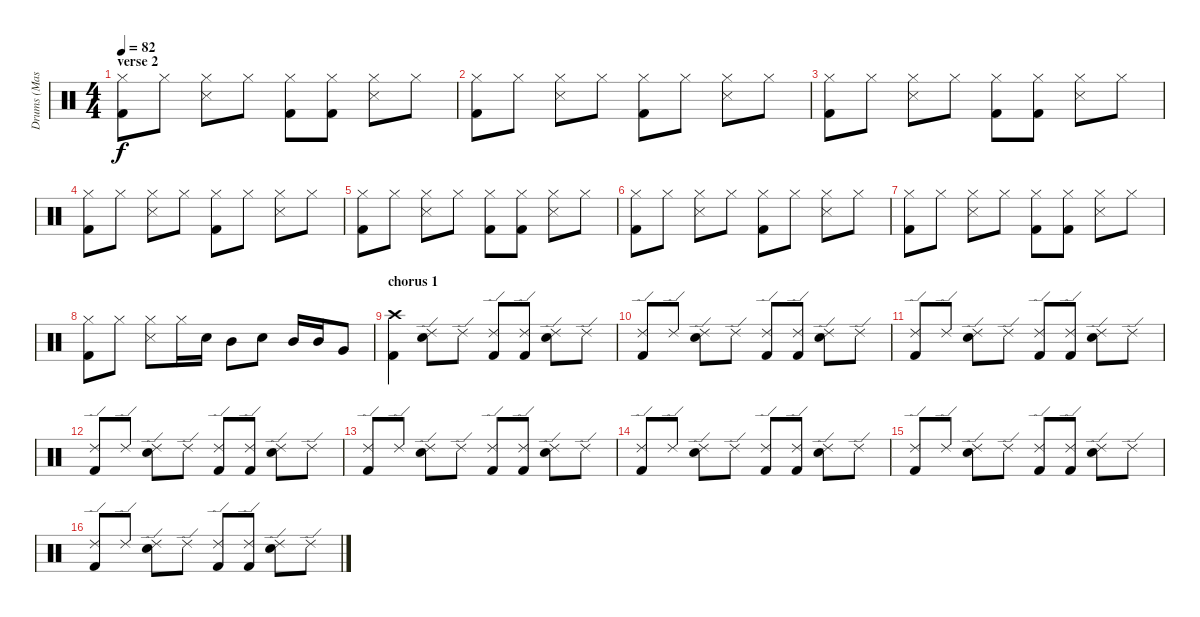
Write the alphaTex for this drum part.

\track ("Drums (Mason)" "Drums (Mas") {instrument percussion}
\staff {score}
\articulation defaults
\ts (4 4)
\section ("" "verse 2")
\tempo 82
\clef neutral
\ks c
("Hi-Hat (closed)" "Kick (hit) 2").8{dy f} "Hi-Hat (closed)".8 ("Hi-Hat (closed)" "Snare (side stick) 3").8 "Hi-Hat (closed)".8 ("Hi-Hat (closed)" "Kick (hit) 2").8 ("Hi-Hat (closed)" "Kick (hit) 2").8 ("Hi-Hat (closed)" "Snare (side stick) 3").8 "Hi-Hat (closed)".8 |
("Hi-Hat (closed)" "Kick (hit) 2").8 "Hi-Hat (closed)".8 ("Hi-Hat (closed)" "Snare (side stick) 3").8 "Hi-Hat (closed)".8 ("Hi-Hat (closed)" "Kick (hit) 2").8 "Hi-Hat (closed)".8 ("Hi-Hat (closed)" "Snare (side stick) 3").8 "Hi-Hat (closed)".8 |
("Hi-Hat (closed)" "Kick (hit) 2").8 "Hi-Hat (closed)".8 ("Hi-Hat (closed)" "Snare (side stick) 3").8 "Hi-Hat (closed)".8 ("Hi-Hat (closed)" "Kick (hit) 2").8 ("Hi-Hat (closed)" "Kick (hit) 2").8 ("Hi-Hat (closed)" "Snare (side stick) 3").8 "Hi-Hat (closed)".8 |
("Hi-Hat (closed)" "Kick (hit) 2").8 "Hi-Hat (closed)".8 ("Hi-Hat (closed)" "Snare (side stick) 3").8 "Hi-Hat (closed)".8 ("Hi-Hat (closed)" "Kick (hit) 2").8 "Hi-Hat (closed)".8 ("Hi-Hat (closed)" "Snare (side stick) 3").8 "Hi-Hat (closed)".8 |
("Hi-Hat (closed)" "Kick (hit) 2").8 "Hi-Hat (closed)".8 ("Hi-Hat (closed)" "Snare (side stick) 3").8 "Hi-Hat (closed)".8 ("Hi-Hat (closed)" "Kick (hit) 2").8 ("Hi-Hat (closed)" "Kick (hit) 2").8 ("Hi-Hat (closed)" "Snare (side stick) 3").8 "Hi-Hat (closed)".8 |
("Hi-Hat (closed)" "Kick (hit) 2").8 "Hi-Hat (closed)".8 ("Hi-Hat (closed)" "Snare (side stick) 3").8 "Hi-Hat (closed)".8 ("Hi-Hat (closed)" "Kick (hit) 2").8 "Hi-Hat (closed)".8 ("Hi-Hat (closed)" "Snare (side stick) 3").8 "Hi-Hat (closed)".8 |
("Hi-Hat (closed)" "Kick (hit) 2").8 "Hi-Hat (closed)".8 ("Hi-Hat (closed)" "Snare (side stick) 3").8 "Hi-Hat (closed)".8 ("Hi-Hat (closed)" "Kick (hit) 2").8 ("Hi-Hat (closed)" "Kick (hit) 2").8 ("Hi-Hat (closed)" "Snare (side stick) 3").8 "Hi-Hat (closed)".8 |
("Hi-Hat (closed)" "Kick (hit) 2").8 "Hi-Hat (closed)".8 ("Hi-Hat (closed)" "Snare (side stick) 3").8 "Hi-Hat (closed)".16 "Electric Snare (hit)".16 "Mid Tom (hit)".8 "Electric Snare (hit)".8 "Mid Tom (hit)".16 "Mid Tom (hit)".16 "Very Low Tom (hit)".8 |
\section ("" "chorus 1")
("Crash high (hit)" "Kick (hit) 2").4 ("Ride (edge) 2" "Electric Snare (hit)").8 "Ride (edge) 2".8 ("Ride (edge) 2" "Kick (hit) 2").8 ("Ride (edge) 2" "Kick (hit) 2").8 ("Ride (edge) 2" "Electric Snare (hit)").8 "Ride (edge) 2".8 |
("Ride (edge) 2" "Kick (hit) 2").8 "Ride (edge) 2".8 ("Ride (edge) 2" "Electric Snare (hit)").8 "Ride (edge) 2".8 ("Ride (edge) 2" "Kick (hit) 2").8 ("Ride (edge) 2" "Kick (hit) 2").8 ("Ride (edge) 2" "Electric Snare (hit)").8 "Ride (edge) 2".8 |
("Ride (edge) 2" "Kick (hit) 2").8 "Ride (edge) 2".8 ("Ride (edge) 2" "Electric Snare (hit)").8 "Ride (edge) 2".8 ("Ride (edge) 2" "Kick (hit) 2").8 ("Ride (edge) 2" "Kick (hit) 2").8 ("Ride (edge) 2" "Electric Snare (hit)").8 "Ride (edge) 2".8 |
("Ride (edge) 2" "Kick (hit) 2").8 "Ride (edge) 2".8 ("Ride (edge) 2" "Electric Snare (hit)").8 "Ride (edge) 2".8 ("Ride (edge) 2" "Kick (hit) 2").8 ("Ride (edge) 2" "Kick (hit) 2").8 ("Ride (edge) 2" "Electric Snare (hit)").8 "Ride (edge) 2".8 |
("Ride (edge) 2" "Kick (hit) 2").8 "Ride (edge) 2".8 ("Ride (edge) 2" "Electric Snare (hit)").8 "Ride (edge) 2".8 ("Ride (edge) 2" "Kick (hit) 2").8 ("Ride (edge) 2" "Kick (hit) 2").8 ("Ride (edge) 2" "Electric Snare (hit)").8 "Ride (edge) 2".8 |
("Ride (edge) 2" "Kick (hit) 2").8 "Ride (edge) 2".8 ("Ride (edge) 2" "Electric Snare (hit)").8 "Ride (edge) 2".8 ("Ride (edge) 2" "Kick (hit) 2").8 ("Ride (edge) 2" "Kick (hit) 2").8 ("Ride (edge) 2" "Electric Snare (hit)").8 "Ride (edge) 2".8 |
("Ride (edge) 2" "Kick (hit) 2").8 "Ride (edge) 2".8 ("Ride (edge) 2" "Electric Snare (hit)").8 "Ride (edge) 2".8 ("Ride (edge) 2" "Kick (hit) 2").8 ("Ride (edge) 2" "Kick (hit) 2").8 ("Ride (edge) 2" "Electric Snare (hit)").8 "Ride (edge) 2".8 |
("Ride (edge) 2" "Kick (hit) 2").8 "Ride (edge) 2".8 ("Ride (edge) 2" "Electric Snare (hit)").8 "Ride (edge) 2".8 ("Ride (edge) 2" "Kick (hit) 2").8 ("Ride (edge) 2" "Kick (hit) 2").8 ("Ride (edge) 2" "Electric Snare (hit)").8 "Ride (edge) 2".8
